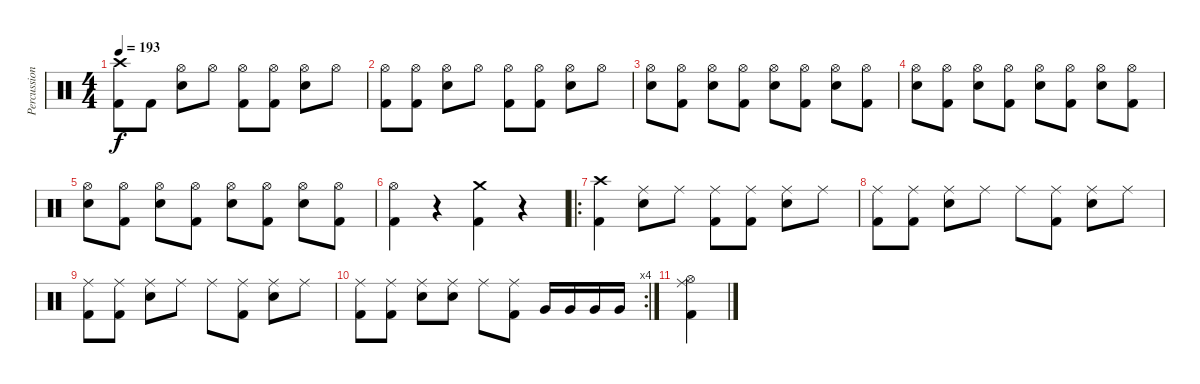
\track ("Percussion" "Percussion") {instrument percussion}
\staff {score}
\articulation defaults
\ts (4 4)
\tempo 193
\clef neutral
\ks c
("Crash high (hit)" "Kick (hit) 2").8{dy f} "Kick (hit) 2".8 ("Hi-Hat (open)" "Snare (hit) 2").8 "Hi-Hat (open)".8 ("Hi-Hat (open)" "Kick (hit) 2").8 ("Hi-Hat (open)" "Kick (hit) 2").8 ("Hi-Hat (open)" "Snare (hit) 2").8 "Hi-Hat (open)".8 |
("Hi-Hat (open)" "Kick (hit) 2").8 ("Hi-Hat (open)" "Kick (hit) 2").8 ("Hi-Hat (open)" "Snare (hit) 2").8 "Hi-Hat (open)".8 ("Hi-Hat (open)" "Kick (hit) 2").8 ("Hi-Hat (open)" "Kick (hit) 2").8 ("Hi-Hat (open)" "Snare (hit) 2").8 "Hi-Hat (open)".8 |
("Hi-Hat (open)" "Snare (hit) 2").8 ("Hi-Hat (open)" "Kick (hit) 2").8 ("Hi-Hat (open)" "Snare (hit) 2").8 ("Hi-Hat (open)" "Kick (hit) 2").8 ("Hi-Hat (open)" "Snare (hit) 2").8 ("Hi-Hat (open)" "Kick (hit) 2").8 ("Hi-Hat (open)" "Snare (hit) 2").8 ("Hi-Hat (open)" "Kick (hit) 2").8 |
("Hi-Hat (open)" "Snare (hit) 2").8 ("Hi-Hat (open)" "Kick (hit) 2").8 ("Hi-Hat (open)" "Snare (hit) 2").8 ("Hi-Hat (open)" "Kick (hit) 2").8 ("Hi-Hat (open)" "Snare (hit) 2").8 ("Hi-Hat (open)" "Kick (hit) 2").8 ("Hi-Hat (open)" "Snare (hit) 2").8 ("Hi-Hat (open)" "Kick (hit) 2").8 |
("Hi-Hat (open)" "Snare (hit) 2").8 ("Hi-Hat (open)" "Kick (hit) 2").8 ("Hi-Hat (open)" "Snare (hit) 2").8 ("Hi-Hat (open)" "Kick (hit) 2").8 ("Hi-Hat (open)" "Snare (hit) 2").8 ("Hi-Hat (open)" "Kick (hit) 2").8 ("Hi-Hat (open)" "Snare (hit) 2").8 ("Hi-Hat (open)" "Kick (hit) 2").8 |
("Hi-Hat (open)" "Kick (hit) 2").4 r.4 ("Crash medium (hit)" "Kick (hit) 2").4 r.4 |
\ro
("Crash high (hit)" "Kick (hit) 2").4 ("Ride (middle)" "Snare (hit) 2").8 "Ride (middle)".8 ("Ride (middle)" "Kick (hit) 2").8 ("Ride (middle)" "Kick (hit) 2").8 ("Ride (middle)" "Snare (hit) 2").8 "Ride (middle)".8 |
("Ride (middle)" "Kick (hit) 2").8 ("Ride (middle)" "Kick (hit) 2").8 ("Ride (middle)" "Snare (hit) 2").8 "Ride (middle)".8 "Ride (middle)".8 ("Ride (middle)" "Kick (hit) 2").8 ("Ride (middle)" "Snare (hit) 2").8 "Ride (middle)".8 |
("Ride (middle)" "Kick (hit) 2").8 ("Ride (middle)" "Kick (hit) 2").8 ("Ride (middle)" "Snare (hit) 2").8 "Ride (middle)".8 "Ride (middle)".8 ("Ride (middle)" "Kick (hit) 2").8 ("Ride (middle)" "Snare (hit) 2").8 "Ride (middle)".8 |
\rc 4
("Ride (middle)" "Kick (hit) 2").8 ("Ride (middle)" "Kick (hit) 2").8 ("Ride (middle)" "Snare (hit) 2").8 ("Ride (middle)" "Snare (hit) 2").8 "Ride (middle)".8 ("Ride (middle)" "Kick (hit) 2").8 "Very Low Tom (hit)".16 "Very Low Tom (hit)".16 "Very Low Tom (hit)".16 "Very Low Tom (hit)".16 |
("Ride (middle)" "Hi-Hat (open)" "Kick (hit) 2").4
